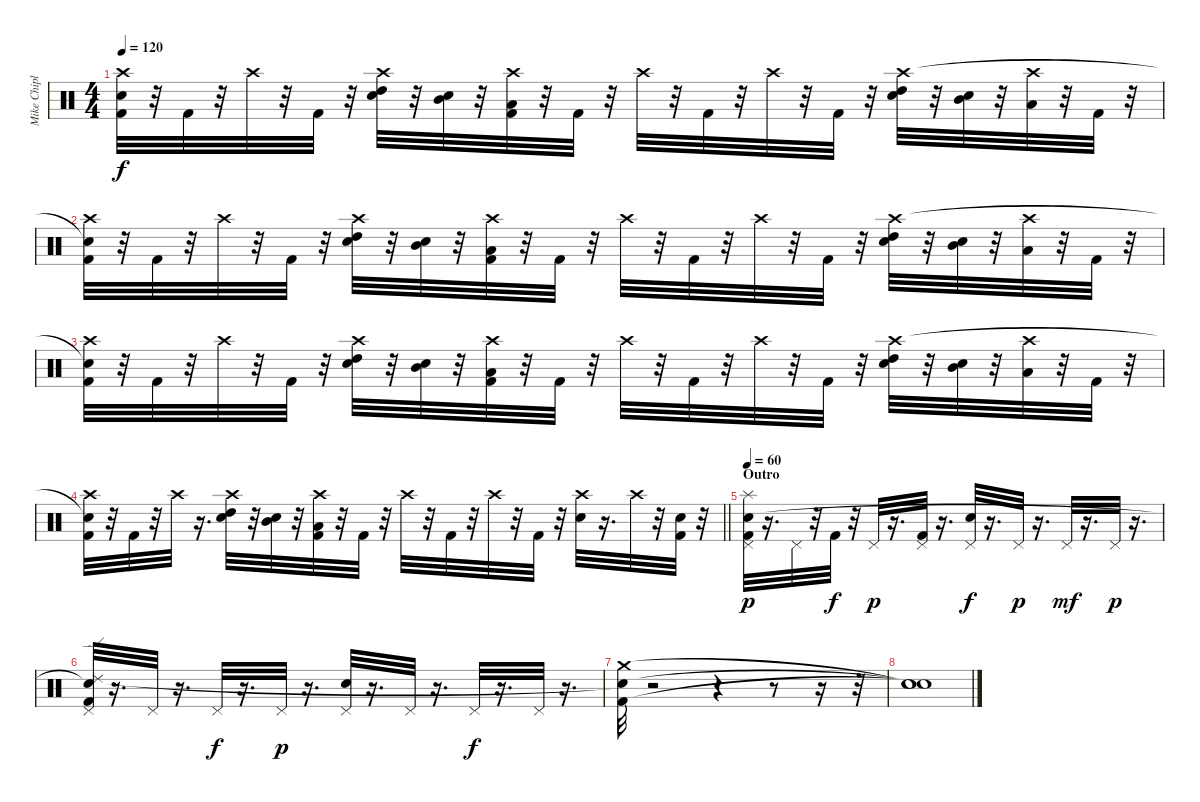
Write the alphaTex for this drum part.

\track ("Mike Chiplin - Drums" "Mike Chipl") {instrument percussion}
\staff {score}
\articulation defaults
\ts (4 4)
\tempo 120
\clef neutral
\ks c
("Kick (hit) 2" "Crash high (hit)" "Snare (hit)"{t}).32{dy f} r.32 "Kick (hit) 2".32 r.32 "Crash high (hit)".32 r.32 "Kick (hit) 2".32 r.32 ("Snare (hit) 2" "High Tom (hit)" "Crash high (hit)").32 r.32 ("Snare (hit) 2" "Mid Tom (hit)").32 r.32 ("Kick (hit) 2" "Low Tom (hit)" "Crash high (hit)").32 r.32 "Kick (hit) 2".32 r.32 "Crash high (hit)".32 r.32 "Kick (hit) 2".32 r.32 "Crash high (hit)".32 r.32 "Kick (hit) 2".32 r.32 ("Snare (hit) 2" "High Tom (hit)" "Crash high (hit)").32 r.32 ("Snare (hit) 2" "Mid Tom (hit)").32 r.32 ("Low Tom (hit)" "Crash high (hit)").32 r.32 "Kick (hit) 2".32 r.32 |
("Kick (hit) 2" "Crash high (hit)" "Snare (hit)"{t}).32 r.32 "Kick (hit) 2".32 r.32 "Crash high (hit)".32 r.32 "Kick (hit) 2".32 r.32 ("Snare (hit) 2" "High Tom (hit)" "Crash high (hit)").32 r.32 ("Snare (hit) 2" "Mid Tom (hit)").32 r.32 ("Kick (hit) 2" "Low Tom (hit)" "Crash high (hit)").32 r.32 "Kick (hit) 2".32 r.32 "Crash high (hit)".32 r.32 "Kick (hit) 2".32 r.32 "Crash high (hit)".32 r.32 "Kick (hit) 2".32 r.32 ("Snare (hit) 2" "High Tom (hit)" "Crash high (hit)").32 r.32 ("Snare (hit) 2" "Mid Tom (hit)").32 r.32 ("Low Tom (hit)" "Crash high (hit)").32 r.32 "Kick (hit) 2".32 r.32 |
("Kick (hit) 2" "Crash high (hit)" "Snare (hit)"{t}).32 r.32 "Kick (hit) 2".32 r.32 "Crash high (hit)".32 r.32 "Kick (hit) 2".32 r.32 ("Snare (hit) 2" "High Tom (hit)" "Crash high (hit)").32 r.32 ("Snare (hit) 2" "Mid Tom (hit)").32 r.32 ("Kick (hit) 2" "Low Tom (hit)" "Crash high (hit)").32 r.32 "Kick (hit) 2".32 r.32 "Crash high (hit)".32 r.32 "Kick (hit) 2".32 r.32 "Crash high (hit)".32 r.32 "Kick (hit) 2".32 r.32 ("Snare (hit) 2" "High Tom (hit)" "Crash high (hit)").32 r.32 ("Snare (hit) 2" "Mid Tom (hit)").32 r.32 ("Low Tom (hit)" "Crash high (hit)").32 r.32 "Kick (hit) 2".32 r.32 |
\barLineRight lightlight
("Kick (hit) 2" "Crash high (hit)" "Snare (hit)"{t}).32 r.32 "Kick (hit) 2".32 r.32 "Crash high (hit)".32 r.16{d} ("Snare (hit) 2" "High Tom (hit)" "Crash high (hit)").32 r.32 ("Snare (hit) 2" "Mid Tom (hit)").32 r.32 ("Kick (hit) 2" "Low Tom (hit)" "Crash high (hit)").32 r.32 "Kick (hit) 2".32 r.32 "Crash high (hit)".32 r.32 "Kick (hit) 2".32 r.32 "Crash high (hit)".32 r.32 "Kick (hit) 2".32 r.32 ("Snare (hit) 2" "Crash high (hit)").32 r.16{d} "Crash high (hit)".32 r.32 ("Kick (hit) 2" "Snare (hit) 2").32 r.32 |
\section ("" "Outro")
\tempo 60
("Kick (hit) 2" "Pedal Hi-Hat (hit)" "Splash (hit)" "Snare (hit)").32{dy p} r.16{d} "Pedal Hi-Hat (hit)".32 r.32 "Kick (hit) 2".32{dy f} r.32 "Pedal Hi-Hat (hit)".32{dy p} r.16{d} ("Kick (hit) 2" "Pedal Hi-Hat (hit)").32 r.16{d} ("Snare (hit) 2" "Pedal Hi-Hat (hit)").32{dy f} r.16{d} "Pedal Hi-Hat (hit)".32{dy p} r.16{d} "Pedal Hi-Hat (hit)".32{dy mf} r.16{d} "Pedal Hi-Hat (hit)".32{dy p} r.16{d} |
("Kick (hit) 2" "Pedal Hi-Hat (hit)" "Ride (edge) 2" "Snare (hit)"{t}).32 r.16{d} "Pedal Hi-Hat (hit)".32 r.16{d} "Pedal Hi-Hat (hit)".32{dy f} r.16{d} "Pedal Hi-Hat (hit)".32{dy p} r.16{d} ("Snare (hit) 2" "Pedal Hi-Hat (hit)").32 r.16{d} "Pedal Hi-Hat (hit)".32 r.16{d} "Pedal Hi-Hat (hit)".32{dy f} r.16{d} "Pedal Hi-Hat (hit)".32 r.16{d} |
("Kick (hit) 2" "Crash medium (hit)" "Snare (hit)"{t}).32 r.2 r.4 r.8 r.16 r.32 |
("Snare (hit)"{t} "Snare (hit)"{t} "Snare (hit)"{t}).1
